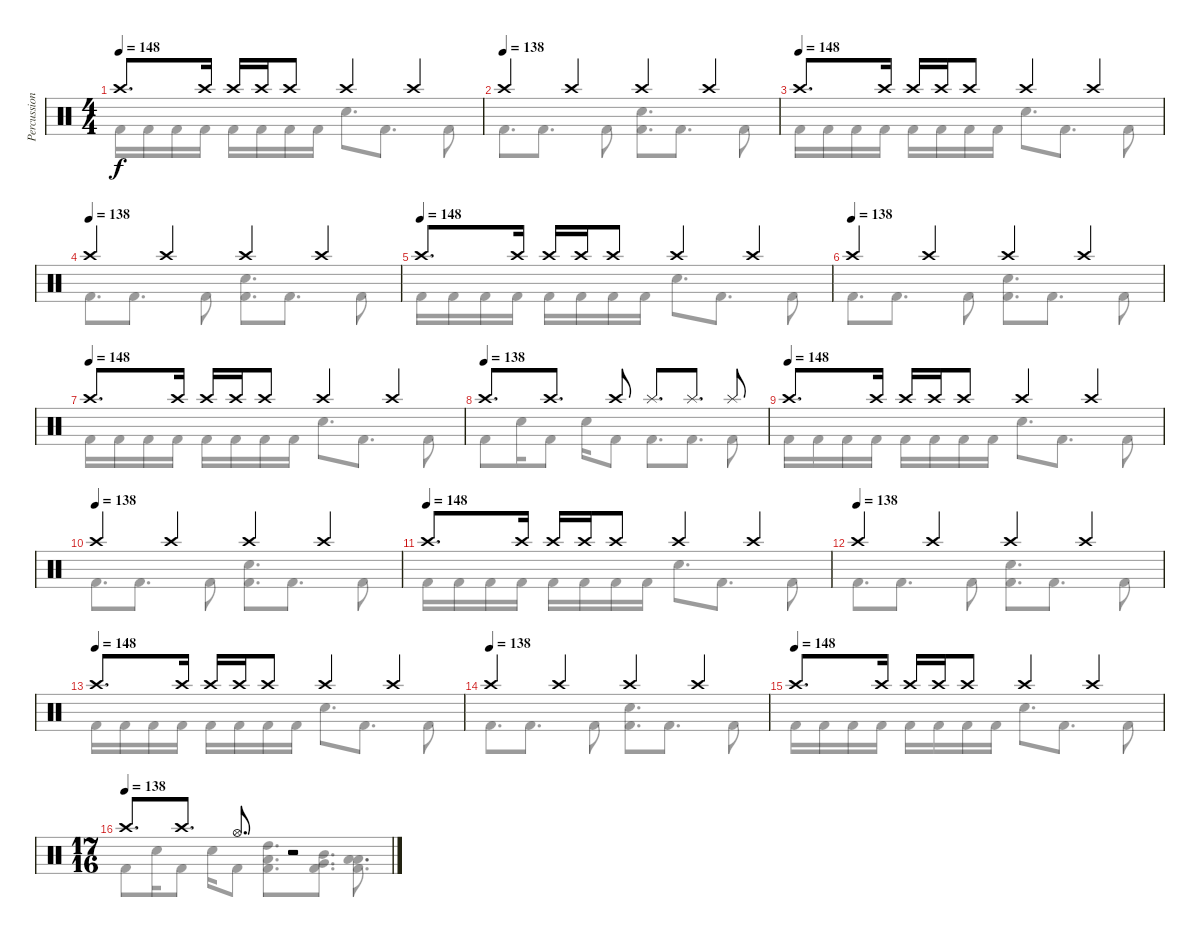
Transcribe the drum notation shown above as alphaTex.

\track ("Percussion" "Percussion") {instrument percussion}
\staff {score}
\articulation defaults
\voice
\ts (4 4)
\tempo 148
\clef neutral
\ks c "Crash high (hit)".8{d dy f} "Crash high (hit)".16 "Crash high (hit)".16 "Crash high (hit)".16 "Crash high (hit)".8 "Crash high (hit)".4 "Crash high (hit)".4
|
\tempo (138)
"Crash high (hit)".4 "Crash high (hit)".4 "Crash high (hit)".4 "Crash high (hit)".4 |
\tempo (148)
"Crash high (hit)".8{d} "Crash high (hit)".16 "Crash high (hit)".16 "Crash high (hit)".16 "Crash high (hit)".8 "Crash high (hit)".4 "Crash high (hit)".4 |
\tempo (138)
"Crash high (hit)".4 "Crash high (hit)".4 "Crash high (hit)".4 "Crash high (hit)".4 |
\tempo (148)
"Crash high (hit)".8{d} "Crash high (hit)".16 "Crash high (hit)".16 "Crash high (hit)".16 "Crash high (hit)".8 "Crash high (hit)".4 "Crash high (hit)".4 |
\tempo (138)
"Crash high (hit)".4 "Crash high (hit)".4 "Crash high (hit)".4 "Crash high (hit)".4 |
\tempo (148)
"Crash high (hit)".8{d} "Crash high (hit)".16 "Crash high (hit)".16 "Crash high (hit)".16 "Crash high (hit)".8 "Crash high (hit)".4 "Crash high (hit)".4 |
\tempo (138)
"Crash high (hit)".8{d} "Crash high (hit)".8{d} "Crash high (hit)".8 "Splash (hit)".8{d} "Splash (hit)".8{d} "Splash (hit)".8 |
\tempo (148)
"Crash high (hit)".8{d} "Crash high (hit)".16 "Crash high (hit)".16 "Crash high (hit)".16 "Crash high (hit)".8 "Crash high (hit)".4 "Crash high (hit)".4 |
\tempo (138)
"Crash high (hit)".4 "Crash high (hit)".4 "Crash high (hit)".4 "Crash high (hit)".4 |
\tempo (148)
"Crash high (hit)".8{d} "Crash high (hit)".16 "Crash high (hit)".16 "Crash high (hit)".16 "Crash high (hit)".8 "Crash high (hit)".4 "Crash high (hit)".4 |
\tempo (138)
"Crash high (hit)".4 "Crash high (hit)".4 "Crash high (hit)".4 "Crash high (hit)".4 |
\tempo (148)
"Crash high (hit)".8{d} "Crash high (hit)".16 "Crash high (hit)".16 "Crash high (hit)".16 "Crash high (hit)".8 "Crash high (hit)".4 "Crash high (hit)".4 |
\tempo (138)
"Crash high (hit)".4 "Crash high (hit)".4 "Crash high (hit)".4 "Crash high (hit)".4 |
\tempo (148)
"Crash high (hit)".8{d} "Crash high (hit)".16 "Crash high (hit)".16 "Crash high (hit)".16 "Crash high (hit)".8 "Crash high (hit)".4 "Crash high (hit)".4 |
\ts (17 16)
\tempo (138)
"Crash high (hit)".8{d} "Crash high (hit)".8{d} "Hi-Hat (open)".8{d} r.2
\voice
\clef neutral
\ottava regular
\simile none
\ks c "Kick (hit) 2".16{dy f} "Kick (hit) 2".16 "Kick (hit) 2".16 "Kick (hit) 2".16 "Kick (hit) 2".16 "Kick (hit) 2".16 "Kick (hit) 2".16 "Kick (hit) 2".16 "Electric Snare (hit)".8{d} "Kick (hit) 2".8{d} "Kick (hit) 2".8
|
"Kick (hit) 2".8{d} "Kick (hit) 2".8{d} "Kick (hit) 2".8 ("Electric Snare (hit)" "Kick (hit) 2").8{d} "Kick (hit) 2".8{d} "Kick (hit) 2".8 |
"Kick (hit) 2".16 "Kick (hit) 2".16 "Kick (hit) 2".16 "Kick (hit) 2".16 "Kick (hit) 2".16 "Kick (hit) 2".16 "Kick (hit) 2".16 "Kick (hit) 2".16 "Electric Snare (hit)".8{d} "Kick (hit) 2".8{d} "Kick (hit) 2".8 |
"Kick (hit) 2".8{d} "Kick (hit) 2".8{d} "Kick (hit) 2".8 ("Electric Snare (hit)" "Kick (hit) 2").8{d} "Kick (hit) 2".8{d} "Kick (hit) 2".8 |
"Kick (hit) 2".16 "Kick (hit) 2".16 "Kick (hit) 2".16 "Kick (hit) 2".16 "Kick (hit) 2".16 "Kick (hit) 2".16 "Kick (hit) 2".16 "Kick (hit) 2".16 "Electric Snare (hit)".8{d} "Kick (hit) 2".8{d} "Kick (hit) 2".8 |
"Kick (hit) 2".8{d} "Kick (hit) 2".8{d} "Kick (hit) 2".8 ("Electric Snare (hit)" "Kick (hit) 2").8{d} "Kick (hit) 2".8{d} "Kick (hit) 2".8 |
"Kick (hit) 2".16 "Kick (hit) 2".16 "Kick (hit) 2".16 "Kick (hit) 2".16 "Kick (hit) 2".16 "Kick (hit) 2".16 "Kick (hit) 2".16 "Kick (hit) 2".16 "Electric Snare (hit)".8{d} "Kick (hit) 2".8{d} "Kick (hit) 2".8 |
"Kick (hit) 2".8 "Electric Snare (hit)".16 "Kick (hit) 2".8 "Electric Snare (hit)".16 "Kick (hit) 2".8 "Kick (hit) 2".8{d} "Kick (hit) 2".8{d} "Kick (hit) 2".8 |
"Kick (hit) 2".16 "Kick (hit) 2".16 "Kick (hit) 2".16 "Kick (hit) 2".16 "Kick (hit) 2".16 "Kick (hit) 2".16 "Kick (hit) 2".16 "Kick (hit) 2".16 "Electric Snare (hit)".8{d} "Kick (hit) 2".8{d} "Kick (hit) 2".8 |
"Kick (hit) 2".8{d} "Kick (hit) 2".8{d} "Kick (hit) 2".8 ("Electric Snare (hit)" "Kick (hit) 2").8{d} "Kick (hit) 2".8{d} "Kick (hit) 2".8 |
"Kick (hit) 2".16 "Kick (hit) 2".16 "Kick (hit) 2".16 "Kick (hit) 2".16 "Kick (hit) 2".16 "Kick (hit) 2".16 "Kick (hit) 2".16 "Kick (hit) 2".16 "Electric Snare (hit)".8{d} "Kick (hit) 2".8{d} "Kick (hit) 2".8 |
"Kick (hit) 2".8{d} "Kick (hit) 2".8{d} "Kick (hit) 2".8 ("Electric Snare (hit)" "Kick (hit) 2").8{d} "Kick (hit) 2".8{d} "Kick (hit) 2".8 |
"Kick (hit) 2".16 "Kick (hit) 2".16 "Kick (hit) 2".16 "Kick (hit) 2".16 "Kick (hit) 2".16 "Kick (hit) 2".16 "Kick (hit) 2".16 "Kick (hit) 2".16 "Electric Snare (hit)".8{d} "Kick (hit) 2".8{d} "Kick (hit) 2".8 |
"Kick (hit) 2".8{d} "Kick (hit) 2".8{d} "Kick (hit) 2".8 ("Electric Snare (hit)" "Kick (hit) 2").8{d} "Kick (hit) 2".8{d} "Kick (hit) 2".8 |
"Kick (hit) 2".16 "Kick (hit) 2".16 "Kick (hit) 2".16 "Kick (hit) 2".16 "Kick (hit) 2".16 "Kick (hit) 2".16 "Kick (hit) 2".16 "Kick (hit) 2".16 "Electric Snare (hit)".8{d} "Kick (hit) 2".8{d} "Kick (hit) 2".8 |
"Kick (hit) 2".8 "Electric Snare (hit)".16 "Kick (hit) 2".8 "Electric Snare (hit)".16 "Kick (hit) 2".8 ("High Tom (hit)" "Low Tom (hit)" "Kick (hit) 2").8{d} ("Mid Tom (hit)" "Very Low Tom (hit)" "Kick (hit) 2").8{d} ("Low Tom (hit)" "Low Floor Tom (hit)" "Kick (hit) 2").8{d}
